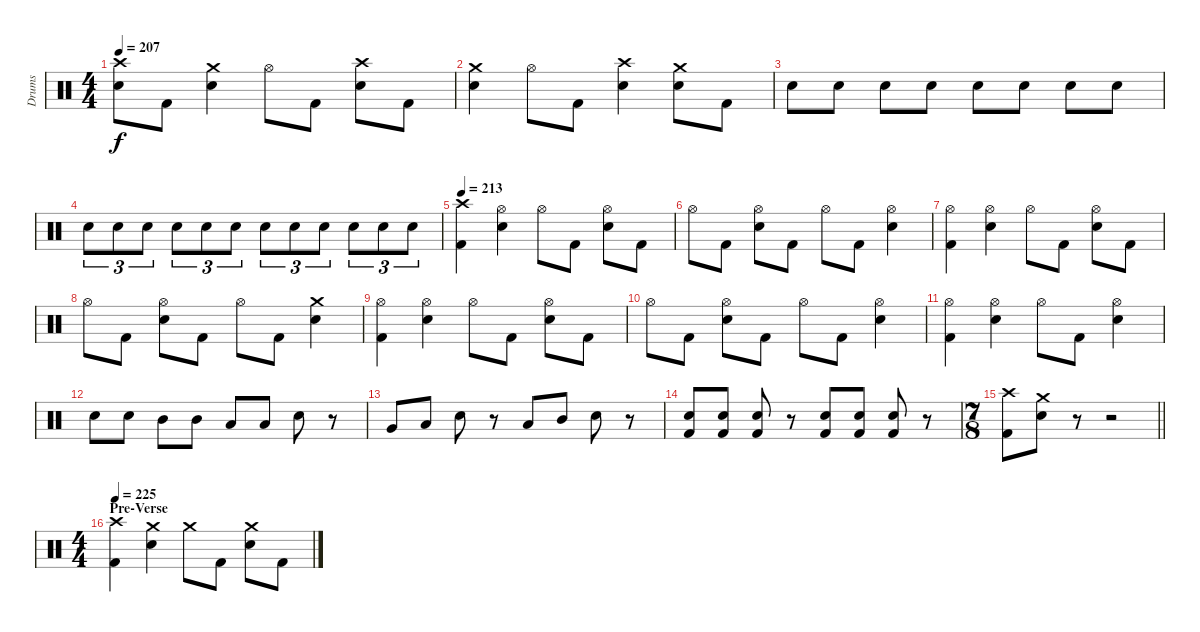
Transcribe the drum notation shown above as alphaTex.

\track ("Drums" "Drums") {instrument percussion}
\staff {score}
\articulation defaults
\ts (4 4)
\tempo 207
\clef neutral
\ks c
("Crash high (hit)" "Snare (hit) 2").8{dy f} "Kick (hit) 2".8 ("Crash medium (hit)" "Snare (hit) 2").4 "Hi-Hat (open)".8 "Kick (hit) 2".8 ("Crash high (hit)" "Snare (hit) 2").8 "Kick (hit) 2".8 |
("Crash medium (hit)" "Snare (hit) 2").4 "Hi-Hat (open)".8 "Kick (hit) 2".8 ("Crash high (hit)" "Snare (hit) 2").4 ("Crash medium (hit)" "Snare (hit) 2").8 "Kick (hit) 2".8 |
"Snare (hit) 2".8 "Snare (hit) 2".8 "Snare (hit) 2".8 "Snare (hit) 2".8 "Snare (hit) 2".8 "Snare (hit) 2".8 "Snare (hit) 2".8 "Snare (hit) 2".8 |
"Snare (hit) 2".8{tu (3 2)} "Snare (hit) 2".8{tu (3 2)} "Snare (hit) 2".8{tu (3 2)} "Snare (hit) 2".8{tu (3 2)} "Snare (hit) 2".8{tu (3 2)} "Snare (hit) 2".8{tu (3 2)} "Snare (hit) 2".8{tu (3 2)} "Snare (hit) 2".8{tu (3 2)} "Snare (hit) 2".8{tu (3 2)} "Snare (hit) 2".8{tu (3 2)} "Snare (hit) 2".8{tu (3 2)} "Snare (hit) 2".8{tu (3 2)} |
\tempo 213
("Crash high (hit)" "Kick (hit) 2").4 ("Hi-Hat (open)" "Snare (hit) 2").4 "Hi-Hat (open)".8 "Kick (hit) 2".8 ("Hi-Hat (open)" "Snare (hit) 2").8 "Kick (hit) 2".8 |
"Hi-Hat (open)".8 "Kick (hit) 2".8 ("Hi-Hat (open)" "Snare (hit) 2").8 "Kick (hit) 2".8 "Hi-Hat (open)".8 "Kick (hit) 2".8 ("Hi-Hat (open)" "Snare (hit) 2").4 |
("Hi-Hat (open)" "Kick (hit) 2").4 ("Hi-Hat (open)" "Snare (hit) 2").4 "Hi-Hat (open)".8 "Kick (hit) 2".8 ("Hi-Hat (open)" "Snare (hit) 2").8 "Kick (hit) 2".8 |
"Hi-Hat (open)".8 "Kick (hit) 2".8 ("Hi-Hat (open)" "Snare (hit) 2").8 "Kick (hit) 2".8 "Hi-Hat (open)".8 "Kick (hit) 2".8 ("Crash medium (hit)" "Snare (hit) 2").4 |
("Hi-Hat (open)" "Kick (hit) 2").4 ("Hi-Hat (open)" "Snare (hit) 2").4 "Hi-Hat (open)".8 "Kick (hit) 2".8 ("Hi-Hat (open)" "Snare (hit) 2").8 "Kick (hit) 2".8 |
"Hi-Hat (open)".8 "Kick (hit) 2".8 ("Hi-Hat (open)" "Snare (hit) 2").8 "Kick (hit) 2".8 "Hi-Hat (open)".8 "Kick (hit) 2".8 ("Hi-Hat (open)" "Snare (hit) 2").4 |
("Hi-Hat (open)" "Kick (hit) 2").4 ("Hi-Hat (open)" "Snare (hit) 2").4 "Hi-Hat (open)".8 "Kick (hit) 2".8 ("Hi-Hat (open)" "Snare (hit) 2").4 |
"Snare (hit) 2".8 "Snare (hit) 2".8 "Mid Tom (hit)".8 "Mid Tom (hit)".8 "Low Tom (hit)".8 "Low Tom (hit)".8 "Snare (hit) 2".8 r.8 |
"Very Low Tom (hit)".8 "Low Tom (hit)".8 "Snare (hit) 2".8 r.8 "Low Tom (hit)".8 "Mid Tom (hit)".8 "Snare (hit) 2".8 r.8 |
("Snare (hit) 2" "Kick (hit) 2").8 ("Snare (hit) 2" "Kick (hit) 2").8 ("Snare (hit) 2" "Kick (hit) 2").8 r.8 ("Snare (hit) 2" "Kick (hit) 2").8 ("Snare (hit) 2" "Kick (hit) 2").8 ("Snare (hit) 2" "Kick (hit) 2").8 r.8 |
\ts (7 8)
\barLineRight lightlight
("Crash high (hit)" "Kick (hit) 2").8 ("Crash medium (hit)" "Snare (hit) 2").8 r.8 r.2 |
\ts (4 4)
\section ("" "Pre-Verse")
\tempo 225
("Crash high (hit)" "Kick (hit) 2").4 ("Crash medium (hit)" "Snare (hit) 2").4 "Crash medium (hit)".8 "Kick (hit) 2".8 ("Crash medium (hit)" "Snare (hit) 2").8 "Kick (hit) 2".8
